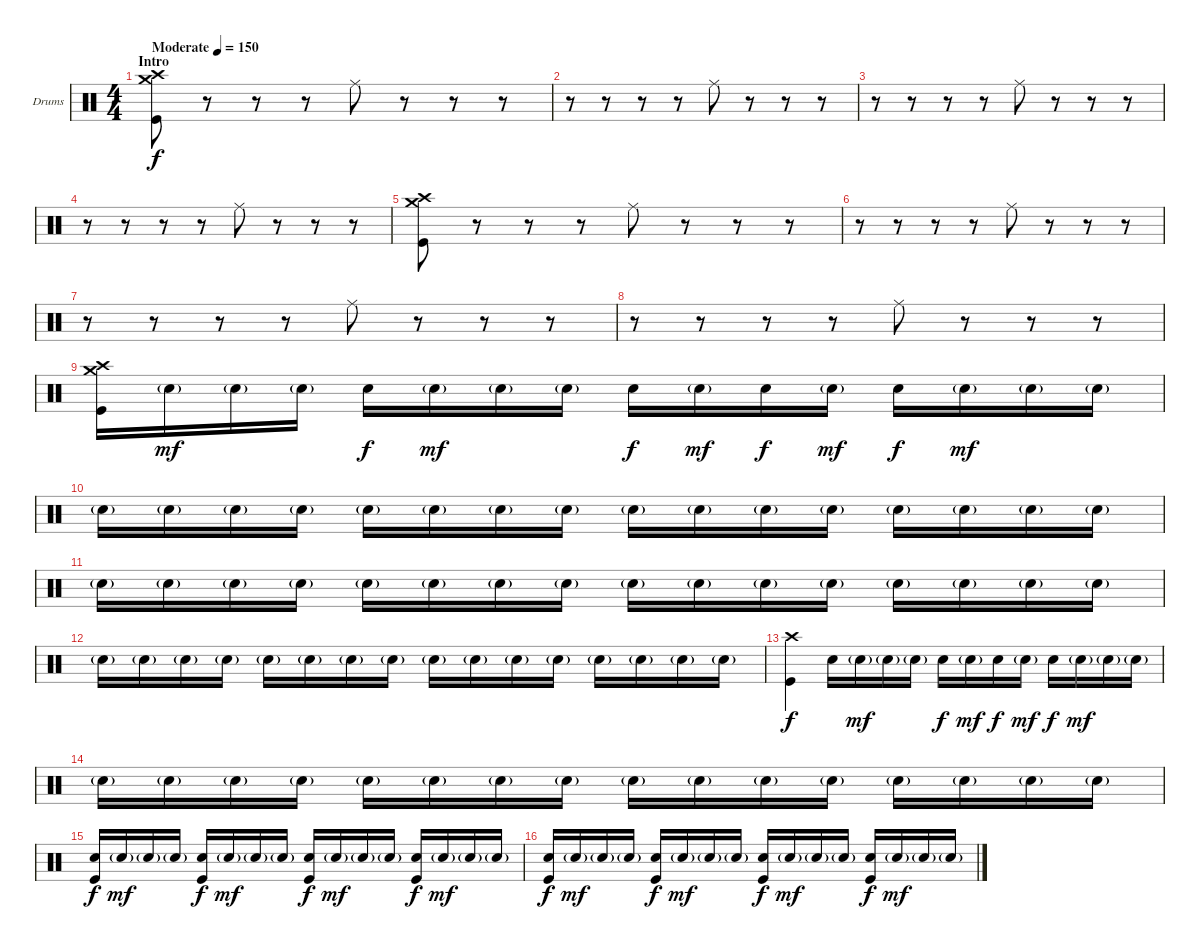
\bracketExtendMode groupsimilarinstruments
\firstSystemTrackNameOrientation horizontal
\otherSystemsTrackNameOrientation horizontal
\track ("Drumkit" "Drums") {instrument percussion}
\staff {score}
\articulation defaults
\ts (4 4)
\beaming (8 2 2 2 2)
\section ("" "Intro")
\tempo (150 "Moderate")
\clef neutral
\ks c
("Crash medium (hit)" "Crash high (hit)" "Kick (hit)").8{dy f} r.8 r.8 r.8 "Ride (middle)".8 r.8 r.8 r.8 |
r.8 r.8 r.8 r.8 "Ride (middle)".8 r.8 r.8 r.8 |
r.8 r.8 r.8 r.8 "Ride (middle)".8 r.8 r.8 r.8 |
r.8 r.8 r.8 r.8 "Ride (middle)".8 r.8 r.8 r.8 |
("Crash medium (hit)" "Crash high (hit)" "Kick (hit)").8 r.8 r.8 r.8 "Ride (middle)".8 r.8 r.8 r.8 |
r.8 r.8 r.8 r.8 "Ride (middle)".8 r.8 r.8 r.8 |
r.8 r.8 r.8 r.8 "Ride (middle)".8 r.8 r.8 r.8 |
r.8 r.8 r.8 r.8 "Ride (middle)".8 r.8 r.8 r.8 |
("Crash medium (hit)" "Crash high (hit)" "Kick (hit)").16 "Snare (hit) 2"{g}.16{dy mf} "Snare (hit) 2"{g}.16 "Snare (hit) 2"{g}.16 "Snare (hit) 2".16{dy f} "Snare (hit) 2"{g}.16{dy mf} "Snare (hit) 2"{g}.16 "Snare (hit) 2"{g}.16 "Snare (hit) 2".16{dy f} "Snare (hit) 2"{g}.16{dy mf} "Snare (hit) 2".16{dy f} "Snare (hit) 2"{g}.16{dy mf} "Snare (hit) 2".16{dy f} "Snare (hit) 2"{g}.16{dy mf} "Snare (hit) 2"{g}.16 "Snare (hit) 2"{g}.16 |
"Snare (hit) 2"{g}.16 "Snare (hit) 2"{g}.16 "Snare (hit) 2"{g}.16 "Snare (hit) 2"{g}.16 "Snare (hit) 2"{g}.16 "Snare (hit) 2"{g}.16 "Snare (hit) 2"{g}.16 "Snare (hit) 2"{g}.16 "Snare (hit) 2"{g}.16 "Snare (hit) 2"{g}.16 "Snare (hit) 2"{g}.16 "Snare (hit) 2"{g}.16 "Snare (hit) 2"{g}.16 "Snare (hit) 2"{g}.16 "Snare (hit) 2"{g}.16 "Snare (hit) 2"{g}.16 |
"Snare (hit) 2"{g}.16 "Snare (hit) 2"{g}.16 "Snare (hit) 2"{g}.16 "Snare (hit) 2"{g}.16 "Snare (hit) 2"{g}.16 "Snare (hit) 2"{g}.16 "Snare (hit) 2"{g}.16 "Snare (hit) 2"{g}.16 "Snare (hit) 2"{g}.16 "Snare (hit) 2"{g}.16 "Snare (hit) 2"{g}.16 "Snare (hit) 2"{g}.16 "Snare (hit) 2"{g}.16 "Snare (hit) 2"{g}.16 "Snare (hit) 2"{g}.16 "Snare (hit) 2"{g}.16 |
"Snare (hit) 2"{g}.16 "Snare (hit) 2"{g}.16 "Snare (hit) 2"{g}.16 "Snare (hit) 2"{g}.16 "Snare (hit) 2"{g}.16 "Snare (hit) 2"{g}.16 "Snare (hit) 2"{g}.16 "Snare (hit) 2"{g}.16 "Snare (hit) 2"{g}.16 "Snare (hit) 2"{g}.16 "Snare (hit) 2"{g}.16 "Snare (hit) 2"{g}.16 "Snare (hit) 2"{g}.16 "Snare (hit) 2"{g}.16 "Snare (hit) 2"{g}.16 "Snare (hit) 2"{g}.16 |
("Crash high (hit)" "Kick (hit)").4{dy f} "Snare (hit) 2".16 "Snare (hit) 2"{g}.16{dy mf} "Snare (hit) 2"{g}.16 "Snare (hit) 2"{g}.16 "Snare (hit) 2".16{dy f} "Snare (hit) 2"{g}.16{dy mf} "Snare (hit) 2".16{dy f} "Snare (hit) 2"{g}.16{dy mf} "Snare (hit) 2".16{dy f} "Snare (hit) 2"{g}.16{dy mf} "Snare (hit) 2"{g}.16 "Snare (hit) 2"{g}.16 |
"Snare (hit) 2"{g}.16 "Snare (hit) 2"{g}.16 "Snare (hit) 2"{g}.16 "Snare (hit) 2"{g}.16 "Snare (hit) 2"{g}.16 "Snare (hit) 2"{g}.16 "Snare (hit) 2"{g}.16 "Snare (hit) 2"{g}.16 "Snare (hit) 2"{g}.16 "Snare (hit) 2"{g}.16 "Snare (hit) 2"{g}.16 "Snare (hit) 2"{g}.16 "Snare (hit) 2"{g}.16 "Snare (hit) 2"{g}.16 "Snare (hit) 2"{g}.16 "Snare (hit) 2"{g}.16 |
("Snare (hit) 2" "Kick (hit)").16{dy f} "Snare (hit) 2"{g}.16{dy mf} "Snare (hit) 2"{g}.16 "Snare (hit) 2"{g}.16 ("Snare (hit) 2" "Kick (hit)").16{dy f} "Snare (hit) 2"{g}.16{dy mf} "Snare (hit) 2"{g}.16 "Snare (hit) 2"{g}.16 ("Snare (hit) 2" "Kick (hit)").16{dy f} "Snare (hit) 2"{g}.16{dy mf} "Snare (hit) 2"{g}.16 "Snare (hit) 2"{g}.16 ("Snare (hit) 2" "Kick (hit)").16{dy f} "Snare (hit) 2"{g}.16{dy mf} "Snare (hit) 2"{g}.16 "Snare (hit) 2"{g}.16 |
("Snare (hit) 2" "Kick (hit)").16{dy f} "Snare (hit) 2"{g}.16{dy mf} "Snare (hit) 2"{g}.16 "Snare (hit) 2"{g}.16 ("Snare (hit) 2" "Kick (hit)").16{dy f} "Snare (hit) 2"{g}.16{dy mf} "Snare (hit) 2"{g}.16 "Snare (hit) 2"{g}.16 ("Snare (hit) 2" "Kick (hit)").16{dy f} "Snare (hit) 2"{g}.16{dy mf} "Snare (hit) 2"{g}.16 "Snare (hit) 2"{g}.16 ("Snare (hit) 2" "Kick (hit)").16{dy f} "Snare (hit) 2"{g}.16{dy mf} "Snare (hit) 2"{g}.16 "Snare (hit) 2"{g}.16
